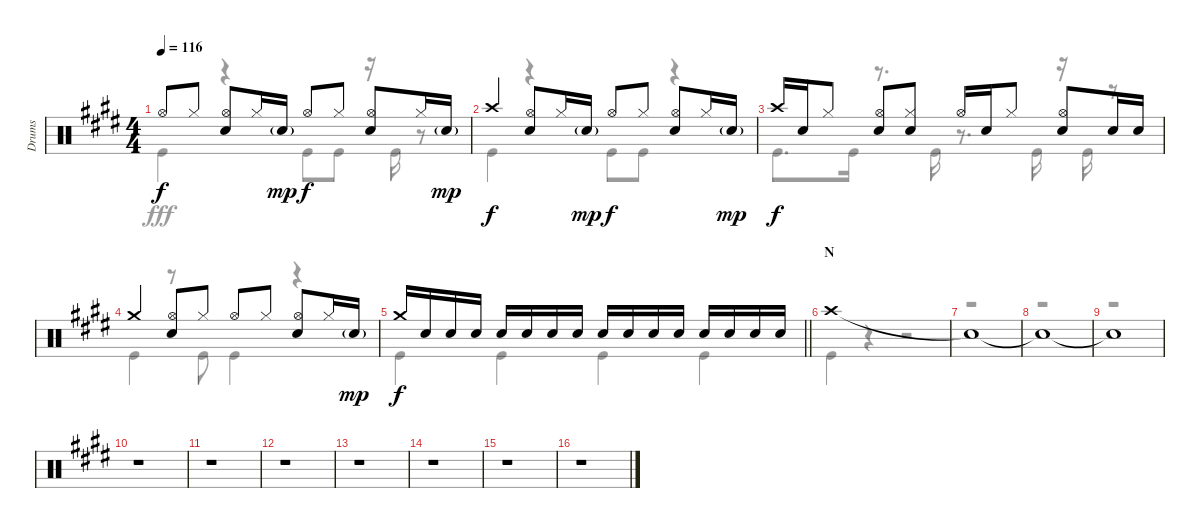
\track ("Drums" "Drums") {instrument percussion}
\staff {score}
\articulation defaults
\voice
\ts (4 4)
\tempo 116
\clef neutral
\ks e "Hi-Hat (open)".8{dy f} "Hi-Hat (closed)".8
("Hi-Hat (open)" "Snare (hit) 2").8 "Hi-Hat (closed)".16 "Snare (hit) 2"{g}.16{dy mp} "Hi-Hat (open)".8{dy f} "Hi-Hat (closed)".8 ("Hi-Hat (open)" "Snare (hit) 2").8 "Hi-Hat (closed)".16 "Snare (hit) 2"{g}.16{dy mp} |
"Crash high (hit)".4{dy f} ("Hi-Hat (open)" "Snare (hit) 2").8 "Hi-Hat (closed)".16 "Snare (hit) 2"{g}.16{dy mp} "Hi-Hat (open)".8{dy f} "Hi-Hat (closed)".8 ("Hi-Hat (open)" "Snare (hit) 2").8 "Hi-Hat (closed)".16 "Snare (hit) 2"{g}.16{dy mp} |
"Crash high (hit)".16{dy f} "Snare (hit) 2".16 "Hi-Hat (closed)".8 ("Hi-Hat (open)" "Snare (hit) 2").8 ("Hi-Hat (closed)" "Snare (hit) 2").8 "Hi-Hat (open)".16 "Snare (hit) 2".16 "Hi-Hat (closed)".8 ("Hi-Hat (open)" "Snare (hit) 2").8 "Snare (hit) 2".16 "Snare (hit) 2".16 |
"Crash medium (hit)".4 ("Hi-Hat (open)" "Snare (hit) 2").8 "Hi-Hat (closed)".8 "Hi-Hat (open)".8 "Hi-Hat (closed)".8 ("Hi-Hat (open)" "Snare (hit) 2").8 "Hi-Hat (closed)".16 "Snare (hit) 2"{g}.16{dy mp} |
\barLineRight lightlight "Crash medium (hit)".16{dy f} "Snare (hit) 2".16 "Snare (hit) 2".16 "Snare (hit) 2".16 "Snare (hit) 2".16 "Snare (hit) 2".16 "Snare (hit) 2".16 "Snare (hit) 2".16 "Snare (hit) 2".16 "Snare (hit) 2".16 "Snare (hit) 2".16 "Snare (hit) 2".16 "Snare (hit) 2".16 "Snare (hit) 2".16 "Snare (hit) 2".16 "Snare (hit) 2".16
|
\section ("" "N")
"Crash high (hit)".1 |
"Snare (hit)"{t}.1 |
"Snare (hit)"{t}.1 |
"Snare (hit)"{t}.1 |
r.1 |
r.1 |
r.1 |
r.1 |
r.1 |
r.1 |
r.1
\voice
\clef neutral
\ottava regular
\simile none
\ks e "Kick (hit)".4{dy fff}
r.4 "Kick (hit)".8 "Kick (hit)".8 r.16 "Kick (hit)".16 r.8 |
"Kick (hit)".4 r.4 "Kick (hit)".8 "Kick (hit)".8 r.4 |
"Kick (hit)".8{d} "Kick (hit)".16 r.8{d} "Kick (hit)".16 r.8{d} "Kick (hit)".16 r.16 "Kick (hit)".16 r.8 |
"Kick (hit)".4 r.8 "Kick (hit)".8 "Kick (hit)".4 r.4 |
\barLineRight lightlight "Kick (hit)".4 "Kick (hit)".4 "Kick (hit)".4 "Kick (hit)".4
|
"Kick (hit)".4 r.4 r.2 |
r.1 |
r.1 |
r.1 |
r.1 |
r.1 |
r.1 |
r.1 |
r.1 |
r.1 |
r.1
